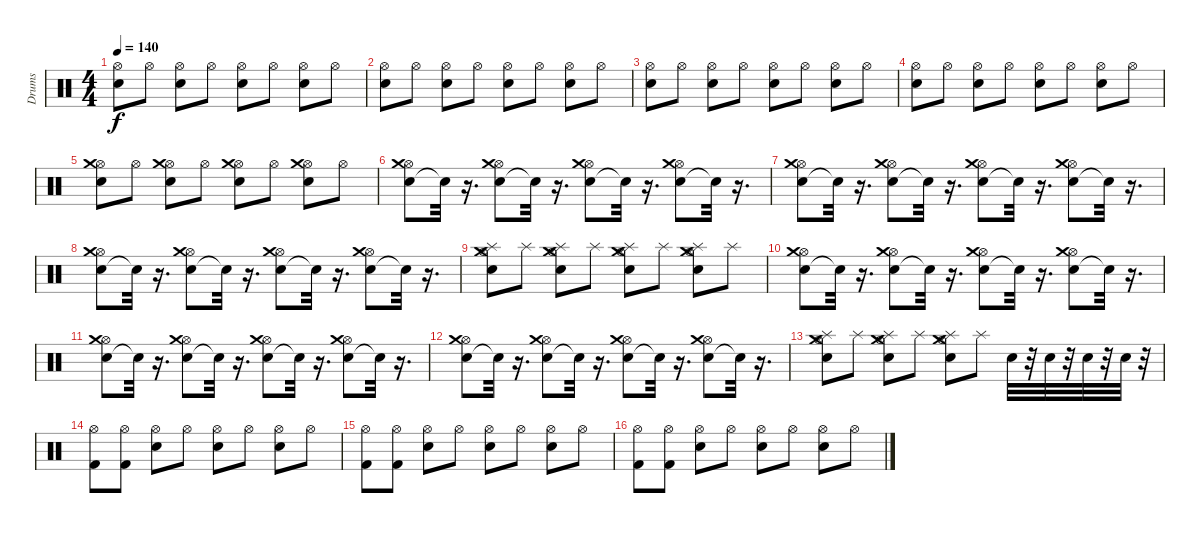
\track ("Drums" "Drums") {instrument percussion}
\staff {score}
\articulation defaults
\ts (4 4)
\tempo 140
\clef neutral
\ks c
("Snare (hit) 2" "Hi-Hat (open)").8{dy f} "Hi-Hat (open)".8 ("Snare (hit) 2" "Hi-Hat (open)").8 "Hi-Hat (open)".8 ("Snare (hit) 2" "Hi-Hat (open)").8 "Hi-Hat (open)".8 ("Snare (hit) 2" "Hi-Hat (open)").8 "Hi-Hat (open)".8 |
("Snare (hit) 2" "Hi-Hat (open)").8 "Hi-Hat (open)".8 ("Snare (hit) 2" "Hi-Hat (open)").8 "Hi-Hat (open)".8 ("Snare (hit) 2" "Hi-Hat (open)").8 "Hi-Hat (open)".8 ("Snare (hit) 2" "Hi-Hat (open)").8 "Hi-Hat (open)".8 |
("Snare (hit) 2" "Hi-Hat (open)").8 "Hi-Hat (open)".8 ("Snare (hit) 2" "Hi-Hat (open)").8 "Hi-Hat (open)".8 ("Snare (hit) 2" "Hi-Hat (open)").8 "Hi-Hat (open)".8 ("Snare (hit) 2" "Hi-Hat (open)").8 "Hi-Hat (open)".8 |
("Snare (hit) 2" "Hi-Hat (open)").8 "Hi-Hat (open)".8 ("Snare (hit) 2" "Hi-Hat (open)").8 "Hi-Hat (open)".8 ("Snare (hit) 2" "Hi-Hat (open)").8 "Hi-Hat (open)".8 ("Snare (hit) 2" "Hi-Hat (open)").8 "Hi-Hat (open)".8 |
("Snare (hit) 2" "Hi-Hat (open)" "Crash medium (hit)").8 "Hi-Hat (open)".8 ("Snare (hit) 2" "Hi-Hat (open)" "Crash medium (hit)").8 "Hi-Hat (open)".8 ("Snare (hit) 2" "Hi-Hat (open)" "Crash medium (hit)").8 "Hi-Hat (open)".8 ("Snare (hit) 2" "Hi-Hat (open)" "Crash medium (hit)").8 "Hi-Hat (open)".8 |
("Snare (hit) 2" "Hi-Hat (open)" "Crash medium (hit)").8 "Snare (hit)"{t}.32 r.16{d} ("Snare (hit) 2" "Hi-Hat (open)" "Crash medium (hit)").8 "Snare (hit)"{t}.32 r.16{d} ("Snare (hit) 2" "Hi-Hat (open)" "Crash medium (hit)").8 "Snare (hit)"{t}.32 r.16{d} ("Snare (hit) 2" "Hi-Hat (open)" "Crash medium (hit)").8 "Snare (hit)"{t}.32 r.16{d} |
("Snare (hit) 2" "Hi-Hat (open)" "Crash medium (hit)").8 "Snare (hit)"{t}.32 r.16{d} ("Snare (hit) 2" "Hi-Hat (open)" "Crash medium (hit)").8 "Snare (hit)"{t}.32 r.16{d} ("Snare (hit) 2" "Hi-Hat (open)" "Crash medium (hit)").8 "Snare (hit)"{t}.32 r.16{d} ("Snare (hit) 2" "Hi-Hat (open)" "Crash medium (hit)").8 "Snare (hit)"{t}.32 r.16{d} |
("Snare (hit) 2" "Hi-Hat (open)" "Crash medium (hit)").8 "Snare (hit)"{t}.32 r.16{d} ("Snare (hit) 2" "Hi-Hat (open)" "Crash medium (hit)").8 "Snare (hit)"{t}.32 r.16{d} ("Snare (hit) 2" "Hi-Hat (open)" "Crash medium (hit)").8 "Snare (hit)"{t}.32 r.16{d} ("Snare (hit) 2" "Hi-Hat (open)" "Crash medium (hit)").8 "Snare (hit)"{t}.32 r.16{d} |
("Snare (hit) 2" "Hi-Hat (open)" "Crash medium (hit)" "Splash (hit)").8 "Splash (hit)".8 ("Snare (hit) 2" "Hi-Hat (open)" "Crash medium (hit)" "Splash (hit)").8 "Splash (hit)".8 ("Snare (hit) 2" "Hi-Hat (open)" "Crash medium (hit)" "Splash (hit)").8 "Splash (hit)".8 ("Snare (hit) 2" "Hi-Hat (open)" "Crash medium (hit)" "Splash (hit)").8 "Splash (hit)".8 |
("Snare (hit) 2" "Hi-Hat (open)" "Crash medium (hit)").8 "Snare (hit)"{t}.32 r.16{d} ("Snare (hit) 2" "Hi-Hat (open)" "Crash medium (hit)").8 "Snare (hit)"{t}.32 r.16{d} ("Snare (hit) 2" "Hi-Hat (open)" "Crash medium (hit)").8 "Snare (hit)"{t}.32 r.16{d} ("Snare (hit) 2" "Hi-Hat (open)" "Crash medium (hit)").8 "Snare (hit)"{t}.32 r.16{d} |
("Snare (hit) 2" "Hi-Hat (open)" "Crash medium (hit)").8 "Snare (hit)"{t}.32 r.16{d} ("Snare (hit) 2" "Hi-Hat (open)" "Crash medium (hit)").8 "Snare (hit)"{t}.32 r.16{d} ("Snare (hit) 2" "Hi-Hat (open)" "Crash medium (hit)").8 "Snare (hit)"{t}.32 r.16{d} ("Snare (hit) 2" "Hi-Hat (open)" "Crash medium (hit)").8 "Snare (hit)"{t}.32 r.16{d} |
("Snare (hit) 2" "Hi-Hat (open)" "Crash medium (hit)").8 "Snare (hit)"{t}.32 r.16{d} ("Snare (hit) 2" "Hi-Hat (open)" "Crash medium (hit)").8 "Snare (hit)"{t}.32 r.16{d} ("Snare (hit) 2" "Hi-Hat (open)" "Crash medium (hit)").8 "Snare (hit)"{t}.32 r.16{d} ("Snare (hit) 2" "Hi-Hat (open)" "Crash medium (hit)").8 "Snare (hit)"{t}.32 r.16{d} |
("Snare (hit) 2" "Hi-Hat (open)" "Crash medium (hit)" "Splash (hit)").8 "Splash (hit)".8 ("Snare (hit) 2" "Hi-Hat (open)" "Crash medium (hit)" "Splash (hit)").8 "Splash (hit)".8 ("Snare (hit) 2" "Hi-Hat (open)" "Crash medium (hit)" "Splash (hit)").8 "Splash (hit)".8 "Electric Snare (hit)".32 r.32 "Electric Snare (hit)".32 r.32 "Electric Snare (hit)".32 r.32 "Electric Snare (hit)".32 r.32 |
("Hi-Hat (open)" "Kick (hit) 2").8 ("Hi-Hat (open)" "Kick (hit) 2").8 ("Hi-Hat (open)" "Snare (hit) 2").8 "Hi-Hat (open)".8 ("Snare (hit) 2" "Hi-Hat (open)").8 "Hi-Hat (open)".8 ("Snare (hit) 2" "Hi-Hat (open)").8 "Hi-Hat (open)".8 |
("Hi-Hat (open)" "Kick (hit) 2").8 ("Hi-Hat (open)" "Kick (hit) 2").8 ("Hi-Hat (open)" "Snare (hit) 2").8 "Hi-Hat (open)".8 ("Snare (hit) 2" "Hi-Hat (open)").8 "Hi-Hat (open)".8 ("Snare (hit) 2" "Hi-Hat (open)").8 "Hi-Hat (open)".8 |
("Hi-Hat (open)" "Kick (hit) 2").8 ("Hi-Hat (open)" "Kick (hit) 2").8 ("Hi-Hat (open)" "Snare (hit) 2").8 "Hi-Hat (open)".8 ("Snare (hit) 2" "Hi-Hat (open)").8 "Hi-Hat (open)".8 ("Snare (hit) 2" "Hi-Hat (open)").8 "Hi-Hat (open)".8
